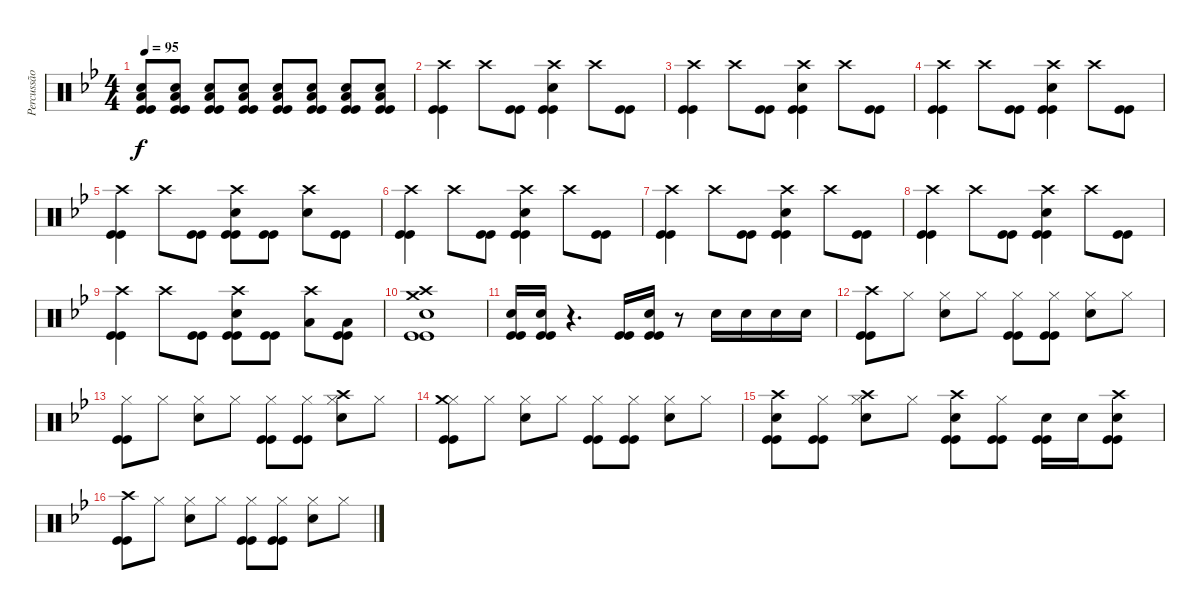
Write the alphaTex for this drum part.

\track ("Percussão" "Percussão") {instrument percussion}
\staff {score}
\articulation defaults
\ts (4 4)
\tempo 95
\clef neutral
\ks gminor
("Kick (hit)" "Kick (hit)" "Electric Snare (hit)" "Low Floor Tom (hit)").8{dy f} ("Kick (hit)" "Kick (hit)" "Electric Snare (hit)" "Low Floor Tom (hit)").8 ("Kick (hit)" "Kick (hit)" "Electric Snare (hit)" "Low Floor Tom (hit)").8 ("Kick (hit)" "Kick (hit)" "Electric Snare (hit)" "Low Floor Tom (hit)").8 ("Kick (hit)" "Kick (hit)" "Electric Snare (hit)" "Low Floor Tom (hit)").8 ("Kick (hit)" "Kick (hit)" "Electric Snare (hit)" "Low Floor Tom (hit)").8 ("Kick (hit)" "Kick (hit)" "Electric Snare (hit)" "Low Floor Tom (hit)").8 ("Kick (hit)" "Kick (hit)" "Electric Snare (hit)" "Low Floor Tom (hit)").8 |
("Kick (hit)" "Kick (hit)" "Crash high (hit)").4 "Crash high (hit)".8 ("Kick (hit)" "Kick (hit)").8 ("Kick (hit)" "Kick (hit)" "Electric Snare (hit)" "Crash high (hit)").4 "Crash high (hit)".8 ("Kick (hit)" "Kick (hit)").8 |
("Kick (hit)" "Kick (hit)" "Crash high (hit)").4 "Crash high (hit)".8 ("Kick (hit)" "Kick (hit)").8 ("Kick (hit)" "Kick (hit)" "Electric Snare (hit)" "Crash high (hit)").4 "Crash high (hit)".8 ("Kick (hit)" "Kick (hit)").8 |
("Kick (hit)" "Kick (hit)" "Crash high (hit)").4 "Crash high (hit)".8 ("Kick (hit)" "Kick (hit)").8 ("Kick (hit)" "Kick (hit)" "Electric Snare (hit)" "Crash high (hit)").4 "Crash high (hit)".8 ("Kick (hit)" "Kick (hit)").8 |
("Kick (hit)" "Kick (hit)" "Crash high (hit)").4 "Crash high (hit)".8 ("Kick (hit)" "Kick (hit)").8 ("Kick (hit)" "Kick (hit)" "Electric Snare (hit)" "Crash high (hit)").8 ("Kick (hit)" "Kick (hit)").8 ("Electric Snare (hit)" "Crash high (hit)").8 ("Kick (hit)" "Kick (hit)").8 |
("Kick (hit)" "Kick (hit)" "Crash high (hit)").4 "Crash high (hit)".8 ("Kick (hit)" "Kick (hit)").8 ("Kick (hit)" "Kick (hit)" "Electric Snare (hit)" "Crash high (hit)").4 "Crash high (hit)".8 ("Kick (hit)" "Kick (hit)").8 |
("Kick (hit)" "Kick (hit)" "Crash high (hit)").4 "Crash high (hit)".8 ("Kick (hit)" "Kick (hit)").8 ("Kick (hit)" "Kick (hit)" "Electric Snare (hit)" "Crash high (hit)").4 "Crash high (hit)".8 ("Kick (hit)" "Kick (hit)").8 |
("Kick (hit)" "Kick (hit)" "Crash high (hit)").4 "Crash high (hit)".8 ("Kick (hit)" "Kick (hit)").8 ("Kick (hit)" "Kick (hit)" "Electric Snare (hit)" "Crash high (hit)").4 "Crash high (hit)".8 ("Kick (hit)" "Kick (hit)").8 |
("Kick (hit)" "Kick (hit)" "Crash high (hit)").4 "Crash high (hit)".8 ("Kick (hit)" "Kick (hit)").8 ("Kick (hit)" "Kick (hit)" "Electric Snare (hit)" "Crash high (hit)").8 ("Kick (hit)" "Kick (hit)").8 ("Low Tom (hit)" "Crash high (hit)").8 ("Kick (hit)" "Kick (hit)" "Low Tom (hit)").8 |
("Crash medium (hit)" "Crash high (hit)" "Electric Snare (hit)" "Kick (hit)" "Kick (hit)").1 |
("Kick (hit)" "Kick (hit)" "Electric Snare (hit)").16 ("Kick (hit)" "Kick (hit)" "Electric Snare (hit)").16 r.4{d} ("Kick (hit)" "Kick (hit)").16 ("Kick (hit)" "Kick (hit)" "Electric Snare (hit)").16 r.8 "Electric Snare (hit)".16 "Electric Snare (hit)".16 "Electric Snare (hit)".16 "Electric Snare (hit)".16 |
("Kick (hit)" "Kick (hit)" "Crash high (hit)").8 "Hi-Hat (closed)".8 ("Electric Snare (hit)" "Hi-Hat (closed)").8 "Hi-Hat (closed)".8 ("Kick (hit)" "Kick (hit)" "Hi-Hat (closed)").8 ("Kick (hit)" "Kick (hit)" "Hi-Hat (closed)").8 ("Electric Snare (hit)" "Hi-Hat (closed)").8 "Hi-Hat (closed)".8 |
("Kick (hit)" "Kick (hit)" "Hi-Hat (closed)").8 "Hi-Hat (closed)".8 ("Electric Snare (hit)" "Hi-Hat (closed)").8 "Hi-Hat (closed)".8 ("Kick (hit)" "Kick (hit)" "Hi-Hat (closed)").8 ("Kick (hit)" "Kick (hit)" "Hi-Hat (closed)").8 ("Electric Snare (hit)" "Hi-Hat (closed)" "Crash high (hit)").8 "Hi-Hat (closed)".8 |
("Kick (hit)" "Kick (hit)" "Hi-Hat (closed)" "Crash medium (hit)").8 "Hi-Hat (closed)".8 ("Electric Snare (hit)" "Hi-Hat (closed)").8 "Hi-Hat (closed)".8 ("Kick (hit)" "Kick (hit)" "Hi-Hat (closed)").8 ("Kick (hit)" "Kick (hit)" "Hi-Hat (closed)").8 ("Electric Snare (hit)" "Hi-Hat (closed)").8 "Hi-Hat (closed)".8 |
("Kick (hit)" "Kick (hit)" "Crash high (hit)" "Electric Snare (hit)").8 ("Kick (hit)" "Kick (hit)" "Hi-Hat (closed)").8 ("Electric Snare (hit)" "Hi-Hat (closed)" "Crash high (hit)").8 "Hi-Hat (closed)".8 ("Kick (hit)" "Kick (hit)" "Crash high (hit)" "Electric Snare (hit)").8 ("Kick (hit)" "Kick (hit)" "Hi-Hat (closed)").8 ("Kick (hit)" "Kick (hit)" "Electric Snare (hit)").16 "Electric Snare (hit)".16 ("Kick (hit)" "Kick (hit)" "Electric Snare (hit)" "Crash high (hit)").8 |
("Kick (hit)" "Kick (hit)" "Crash high (hit)").8 "Hi-Hat (closed)".8 ("Electric Snare (hit)" "Hi-Hat (closed)").8 "Hi-Hat (closed)".8 ("Kick (hit)" "Kick (hit)" "Hi-Hat (closed)").8 ("Kick (hit)" "Kick (hit)" "Hi-Hat (closed)").8 ("Electric Snare (hit)" "Hi-Hat (closed)").8 "Hi-Hat (closed)".8
